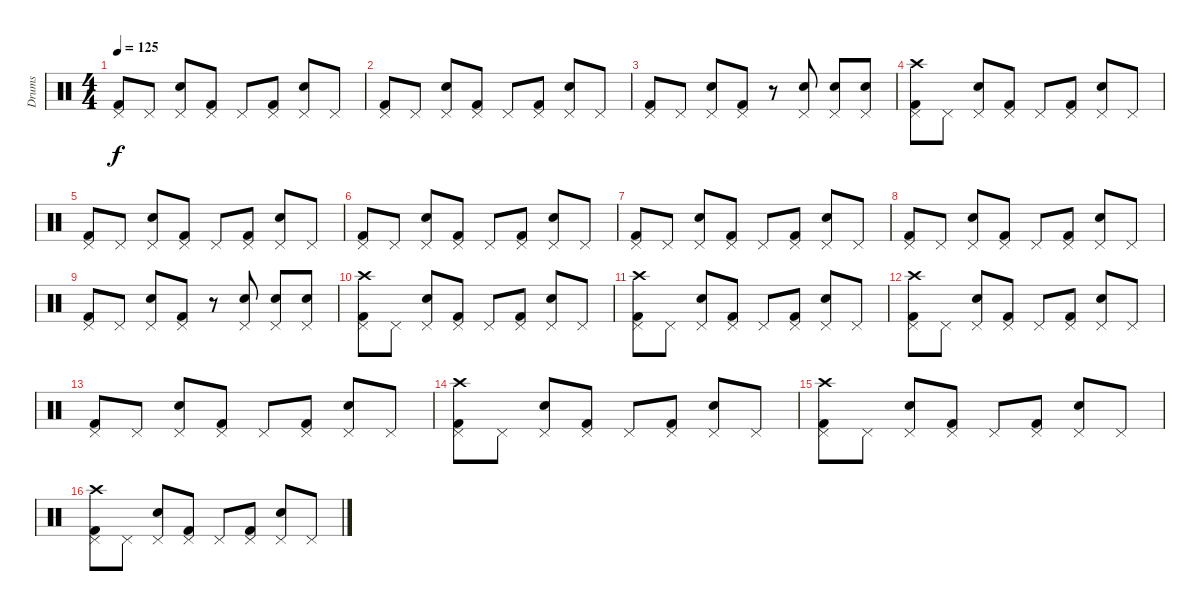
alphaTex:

\track ("Drums" "Drums") {instrument percussion}
\staff {score}
\articulation defaults
\ts (4 4)
\tempo 125
\clef neutral
\ks c
("Kick (hit) 2" "Pedal Hi-Hat (hit)").8{dy f} "Pedal Hi-Hat (hit)".8 ("Pedal Hi-Hat (hit)" "Snare (hit) 2").8 ("Pedal Hi-Hat (hit)" "Kick (hit) 2").8 "Pedal Hi-Hat (hit)".8 ("Kick (hit) 2" "Pedal Hi-Hat (hit)").8 ("Snare (hit) 2" "Pedal Hi-Hat (hit)").8 "Pedal Hi-Hat (hit)".8 |
("Kick (hit) 2" "Pedal Hi-Hat (hit)").8 "Pedal Hi-Hat (hit)".8 ("Pedal Hi-Hat (hit)" "Snare (hit) 2").8 ("Pedal Hi-Hat (hit)" "Kick (hit) 2").8 "Pedal Hi-Hat (hit)".8 ("Kick (hit) 2" "Pedal Hi-Hat (hit)").8 ("Snare (hit) 2" "Pedal Hi-Hat (hit)").8 "Pedal Hi-Hat (hit)".8 |
("Kick (hit) 2" "Pedal Hi-Hat (hit)").8 "Pedal Hi-Hat (hit)".8 ("Pedal Hi-Hat (hit)" "Snare (hit) 2").8 ("Pedal Hi-Hat (hit)" "Kick (hit) 2").8 r.8 ("Snare (hit) 2" "Pedal Hi-Hat (hit)").8 ("Snare (hit) 2" "Pedal Hi-Hat (hit)").8 ("Snare (hit) 2" "Pedal Hi-Hat (hit)").8 |
("Kick (hit) 2" "Pedal Hi-Hat (hit)" "Crash high (hit)").8 "Pedal Hi-Hat (hit)".8 ("Pedal Hi-Hat (hit)" "Snare (hit) 2").8 ("Pedal Hi-Hat (hit)" "Kick (hit) 2").8 "Pedal Hi-Hat (hit)".8 ("Kick (hit) 2" "Pedal Hi-Hat (hit)").8 ("Snare (hit) 2" "Pedal Hi-Hat (hit)").8 "Pedal Hi-Hat (hit)".8 |
("Kick (hit) 2" "Pedal Hi-Hat (hit)").8 "Pedal Hi-Hat (hit)".8 ("Pedal Hi-Hat (hit)" "Snare (hit) 2").8 ("Pedal Hi-Hat (hit)" "Kick (hit) 2").8 "Pedal Hi-Hat (hit)".8 ("Kick (hit) 2" "Pedal Hi-Hat (hit)").8 ("Snare (hit) 2" "Pedal Hi-Hat (hit)").8 "Pedal Hi-Hat (hit)".8 |
("Kick (hit) 2" "Pedal Hi-Hat (hit)").8 "Pedal Hi-Hat (hit)".8 ("Pedal Hi-Hat (hit)" "Snare (hit) 2").8 ("Pedal Hi-Hat (hit)" "Kick (hit) 2").8 "Pedal Hi-Hat (hit)".8 ("Kick (hit) 2" "Pedal Hi-Hat (hit)").8 ("Snare (hit) 2" "Pedal Hi-Hat (hit)").8 "Pedal Hi-Hat (hit)".8 |
("Kick (hit) 2" "Pedal Hi-Hat (hit)").8 "Pedal Hi-Hat (hit)".8 ("Pedal Hi-Hat (hit)" "Snare (hit) 2").8 ("Pedal Hi-Hat (hit)" "Kick (hit) 2").8 "Pedal Hi-Hat (hit)".8 ("Kick (hit) 2" "Pedal Hi-Hat (hit)").8 ("Snare (hit) 2" "Pedal Hi-Hat (hit)").8 "Pedal Hi-Hat (hit)".8 |
("Kick (hit) 2" "Pedal Hi-Hat (hit)").8 "Pedal Hi-Hat (hit)".8 ("Pedal Hi-Hat (hit)" "Snare (hit) 2").8 ("Pedal Hi-Hat (hit)" "Kick (hit) 2").8 "Pedal Hi-Hat (hit)".8 ("Kick (hit) 2" "Pedal Hi-Hat (hit)").8 ("Snare (hit) 2" "Pedal Hi-Hat (hit)").8 "Pedal Hi-Hat (hit)".8 |
("Kick (hit) 2" "Pedal Hi-Hat (hit)").8 "Pedal Hi-Hat (hit)".8 ("Pedal Hi-Hat (hit)" "Snare (hit) 2").8 ("Pedal Hi-Hat (hit)" "Kick (hit) 2").8 r.8 ("Snare (hit) 2" "Pedal Hi-Hat (hit)").8 ("Snare (hit) 2" "Pedal Hi-Hat (hit)").8 ("Snare (hit) 2" "Pedal Hi-Hat (hit)").8 |
("Kick (hit) 2" "Pedal Hi-Hat (hit)" "Crash high (hit)").8 "Pedal Hi-Hat (hit)".8 ("Pedal Hi-Hat (hit)" "Snare (hit) 2").8 ("Pedal Hi-Hat (hit)" "Kick (hit) 2").8 "Pedal Hi-Hat (hit)".8 ("Kick (hit) 2" "Pedal Hi-Hat (hit)").8 ("Snare (hit) 2" "Pedal Hi-Hat (hit)").8 "Pedal Hi-Hat (hit)".8 |
("Kick (hit) 2" "Pedal Hi-Hat (hit)" "Crash high (hit)").8 "Pedal Hi-Hat (hit)".8 ("Pedal Hi-Hat (hit)" "Snare (hit) 2").8 ("Pedal Hi-Hat (hit)" "Kick (hit) 2").8 "Pedal Hi-Hat (hit)".8 ("Kick (hit) 2" "Pedal Hi-Hat (hit)").8 ("Snare (hit) 2" "Pedal Hi-Hat (hit)").8 "Pedal Hi-Hat (hit)".8 |
("Kick (hit) 2" "Pedal Hi-Hat (hit)" "Crash high (hit)").8 "Pedal Hi-Hat (hit)".8 ("Pedal Hi-Hat (hit)" "Snare (hit) 2").8 ("Pedal Hi-Hat (hit)" "Kick (hit) 2").8 "Pedal Hi-Hat (hit)".8 ("Kick (hit) 2" "Pedal Hi-Hat (hit)").8 ("Snare (hit) 2" "Pedal Hi-Hat (hit)").8 "Pedal Hi-Hat (hit)".8 |
("Kick (hit) 2" "Pedal Hi-Hat (hit)").8 "Pedal Hi-Hat (hit)".8 ("Pedal Hi-Hat (hit)" "Snare (hit) 2").8 ("Pedal Hi-Hat (hit)" "Kick (hit) 2").8 "Pedal Hi-Hat (hit)".8 ("Kick (hit) 2" "Pedal Hi-Hat (hit)").8 ("Snare (hit) 2" "Pedal Hi-Hat (hit)").8 "Pedal Hi-Hat (hit)".8 |
("Kick (hit) 2" "Pedal Hi-Hat (hit)" "Crash high (hit)").8 "Pedal Hi-Hat (hit)".8 ("Pedal Hi-Hat (hit)" "Snare (hit) 2").8 ("Pedal Hi-Hat (hit)" "Kick (hit) 2").8 "Pedal Hi-Hat (hit)".8 ("Kick (hit) 2" "Pedal Hi-Hat (hit)").8 ("Snare (hit) 2" "Pedal Hi-Hat (hit)").8 "Pedal Hi-Hat (hit)".8 |
("Kick (hit) 2" "Pedal Hi-Hat (hit)" "Crash high (hit)").8 "Pedal Hi-Hat (hit)".8 ("Pedal Hi-Hat (hit)" "Snare (hit) 2").8 ("Pedal Hi-Hat (hit)" "Kick (hit) 2").8 "Pedal Hi-Hat (hit)".8 ("Kick (hit) 2" "Pedal Hi-Hat (hit)").8 ("Snare (hit) 2" "Pedal Hi-Hat (hit)").8 "Pedal Hi-Hat (hit)".8 |
("Kick (hit) 2" "Pedal Hi-Hat (hit)" "Crash high (hit)").8 "Pedal Hi-Hat (hit)".8 ("Pedal Hi-Hat (hit)" "Snare (hit) 2").8 ("Pedal Hi-Hat (hit)" "Kick (hit) 2").8 "Pedal Hi-Hat (hit)".8 ("Kick (hit) 2" "Pedal Hi-Hat (hit)").8 ("Snare (hit) 2" "Pedal Hi-Hat (hit)").8 "Pedal Hi-Hat (hit)".8
